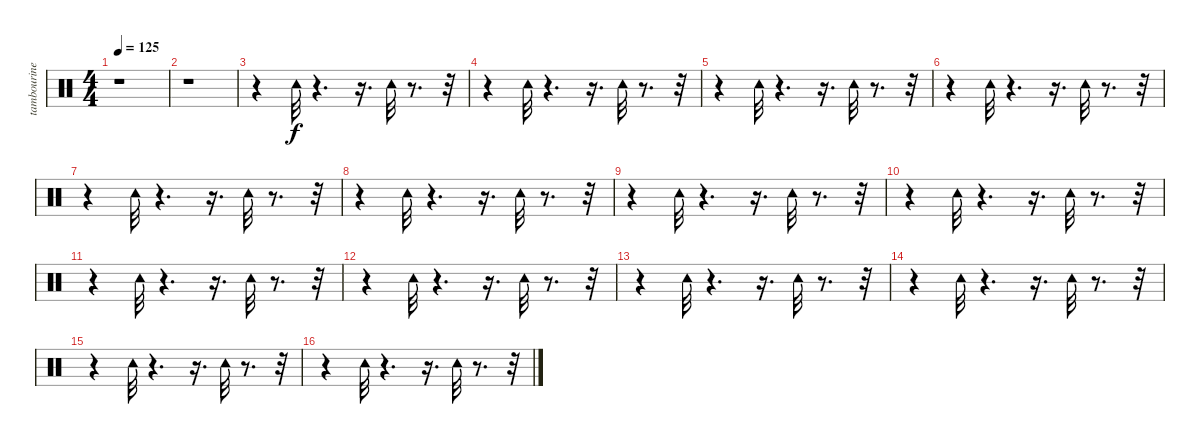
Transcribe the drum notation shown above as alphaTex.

\track ("tambourine" "tambourine") {instrument percussion}
\staff {score}
\articulation defaults
\ts (4 4)
\tempo 125
\clef neutral
\ks c
r.1{dy f} |
r.1 |
r.4 "Tambourine (hit)".32 r.4{d} r.16{d} "Tambourine (hit)".32 r.8{d} r.32 |
r.4 "Tambourine (hit)".32 r.4{d} r.16{d} "Tambourine (hit)".32 r.8{d} r.32 |
r.4 "Tambourine (hit)".32 r.4{d} r.16{d} "Tambourine (hit)".32 r.8{d} r.32 |
r.4 "Tambourine (hit)".32 r.4{d} r.16{d} "Tambourine (hit)".32 r.8{d} r.32 |
r.4 "Tambourine (hit)".32 r.4{d} r.16{d} "Tambourine (hit)".32 r.8{d} r.32 |
r.4 "Tambourine (hit)".32 r.4{d} r.16{d} "Tambourine (hit)".32 r.8{d} r.32 |
r.4 "Tambourine (hit)".32 r.4{d} r.16{d} "Tambourine (hit)".32 r.8{d} r.32 |
r.4 "Tambourine (hit)".32 r.4{d} r.16{d} "Tambourine (hit)".32 r.8{d} r.32 |
r.4 "Tambourine (hit)".32 r.4{d} r.16{d} "Tambourine (hit)".32 r.8{d} r.32 |
r.4 "Tambourine (hit)".32 r.4{d} r.16{d} "Tambourine (hit)".32 r.8{d} r.32 |
r.4 "Tambourine (hit)".32 r.4{d} r.16{d} "Tambourine (hit)".32 r.8{d} r.32 |
r.4 "Tambourine (hit)".32 r.4{d} r.16{d} "Tambourine (hit)".32 r.8{d} r.32 |
r.4 "Tambourine (hit)".32 r.4{d} r.16{d} "Tambourine (hit)".32 r.8{d} r.32 |
r.4 "Tambourine (hit)".32 r.4{d} r.16{d} "Tambourine (hit)".32 r.8{d} r.32
